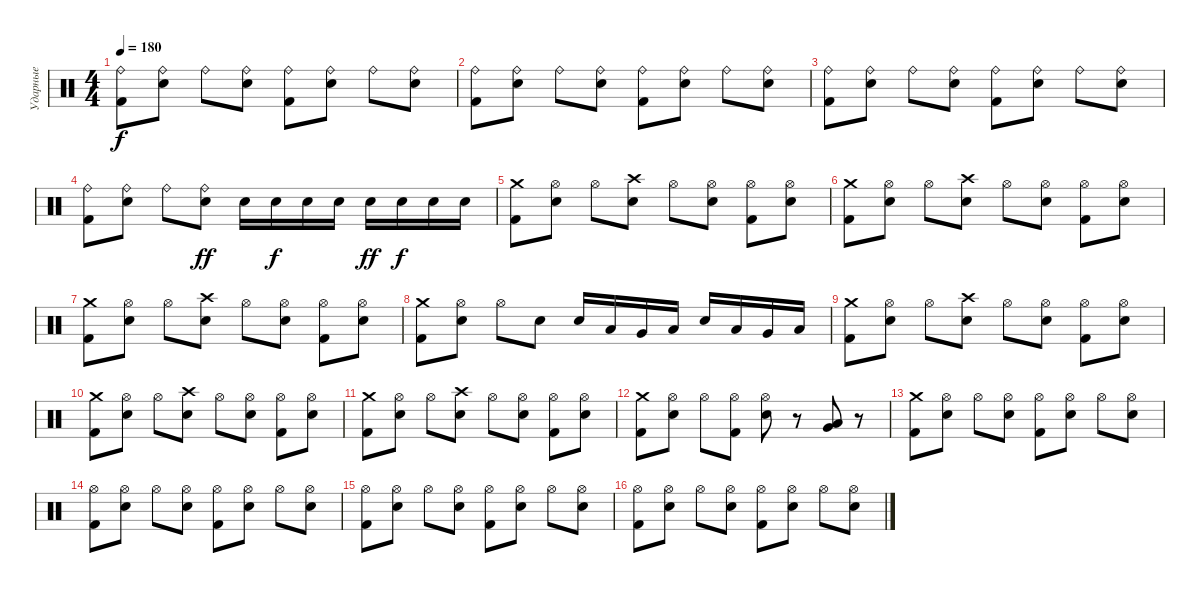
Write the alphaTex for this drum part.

\track ("Ударные" "Ударные") {instrument percussion}
\staff {score}
\articulation defaults
\ts (4 4)
\tempo 180
\clef neutral
\ks c
("Ride (bell)" "Kick (hit) 2").8{dy f} ("Ride (bell)" "Snare (hit) 2").8 "Ride (bell)".8 ("Ride (bell)" "Snare (hit) 2").8 ("Ride (bell)" "Kick (hit) 2").8 ("Ride (bell)" "Snare (hit) 2").8 "Ride (bell)".8 ("Ride (bell)" "Snare (hit) 2").8 |
("Ride (bell)" "Kick (hit) 2").8 ("Ride (bell)" "Snare (hit) 2").8 "Ride (bell)".8 ("Ride (bell)" "Snare (hit) 2").8 ("Ride (bell)" "Kick (hit) 2").8 ("Ride (bell)" "Snare (hit) 2").8 "Ride (bell)".8 ("Ride (bell)" "Snare (hit) 2").8 |
("Ride (bell)" "Kick (hit) 2").8 ("Ride (bell)" "Snare (hit) 2").8 "Ride (bell)".8 ("Ride (bell)" "Snare (hit) 2").8 ("Ride (bell)" "Kick (hit) 2").8 ("Ride (bell)" "Snare (hit) 2").8 "Ride (bell)".8 ("Ride (bell)" "Snare (hit) 2").8 |
("Ride (bell)" "Kick (hit) 2").8 ("Ride (bell)" "Snare (hit) 2").8 "Ride (bell)".8 ("Ride (bell)" "Snare (hit) 2").8{dy ff} "Snare (hit) 2".16 "Snare (hit) 2".16{dy f} "Snare (hit) 2".16 "Snare (hit) 2".16 "Snare (hit) 2".16{dy ff} "Snare (hit) 2".16{dy f} "Snare (hit) 2".16 "Snare (hit) 2".16 |
("Crash medium (hit)" "Kick (hit) 2").8 ("Hi-Hat (open)" "Snare (hit) 2").8 "Hi-Hat (open)".8 ("Crash high (hit)" "Snare (hit) 2").8 "Hi-Hat (open)".8 ("Hi-Hat (open)" "Snare (hit) 2").8 ("Hi-Hat (open)" "Kick (hit) 2").8 ("Hi-Hat (open)" "Snare (hit) 2").8 |
("Crash medium (hit)" "Kick (hit) 2").8 ("Hi-Hat (open)" "Snare (hit) 2").8 "Hi-Hat (open)".8 ("Crash high (hit)" "Snare (hit) 2").8 "Hi-Hat (open)".8 ("Hi-Hat (open)" "Snare (hit) 2").8 ("Hi-Hat (open)" "Kick (hit) 2").8 ("Hi-Hat (open)" "Snare (hit) 2").8 |
("Crash medium (hit)" "Kick (hit) 2").8 ("Hi-Hat (open)" "Snare (hit) 2").8 "Hi-Hat (open)".8 ("Crash high (hit)" "Snare (hit) 2").8 "Hi-Hat (open)".8 ("Hi-Hat (open)" "Snare (hit) 2").8 ("Hi-Hat (open)" "Kick (hit) 2").8 ("Hi-Hat (open)" "Snare (hit) 2").8 |
("Crash medium (hit)" "Kick (hit) 2").8 ("Hi-Hat (open)" "Snare (hit) 2").8 "Hi-Hat (open)".8 "Snare (hit) 2".8 "Snare (hit) 2".16 "Low Tom (hit)".16 "Very Low Tom (hit)".16 "Low Floor Tom (hit)".16 "Snare (hit) 2".16 "Low Tom (hit)".16 "Very Low Tom (hit)".16 "Low Floor Tom (hit)".16 |
("Crash medium (hit)" "Kick (hit) 2").8 ("Hi-Hat (open)" "Snare (hit) 2").8 "Hi-Hat (open)".8 ("Crash high (hit)" "Snare (hit) 2").8 "Hi-Hat (open)".8 ("Hi-Hat (open)" "Snare (hit) 2").8 ("Hi-Hat (open)" "Kick (hit) 2").8 ("Hi-Hat (open)" "Snare (hit) 2").8 |
("Crash medium (hit)" "Kick (hit) 2").8 ("Hi-Hat (open)" "Snare (hit) 2").8 "Hi-Hat (open)".8 ("Crash high (hit)" "Snare (hit) 2").8 "Hi-Hat (open)".8 ("Hi-Hat (open)" "Snare (hit) 2").8 ("Hi-Hat (open)" "Kick (hit) 2").8 ("Hi-Hat (open)" "Snare (hit) 2").8 |
("Crash medium (hit)" "Kick (hit) 2").8 ("Hi-Hat (open)" "Snare (hit) 2").8 "Hi-Hat (open)".8 ("Crash high (hit)" "Snare (hit) 2").8 "Hi-Hat (open)".8 ("Hi-Hat (open)" "Snare (hit) 2").8 ("Hi-Hat (open)" "Kick (hit) 2").8 ("Hi-Hat (open)" "Snare (hit) 2").8 |
("Crash medium (hit)" "Kick (hit) 2").8 ("Hi-Hat (open)" "Snare (hit) 2").8 "Hi-Hat (open)".8 ("Hi-Hat (open)" "Kick (hit) 2").8 ("Hi-Hat (open)" "Snare (hit) 2").8 r.8 ("Very Low Tom (hit)" "Low Floor Tom (hit)").8 r.8 |
("Crash medium (hit)" "Kick (hit) 2").8 ("Hi-Hat (open)" "Snare (hit) 2").8 "Hi-Hat (open)".8 ("Hi-Hat (open)" "Snare (hit) 2").8 ("Hi-Hat (open)" "Kick (hit) 2").8 ("Hi-Hat (open)" "Snare (hit) 2").8 "Hi-Hat (open)".8 ("Hi-Hat (open)" "Snare (hit) 2").8 |
("Hi-Hat (open)" "Kick (hit) 2").8 ("Hi-Hat (open)" "Snare (hit) 2").8 "Hi-Hat (open)".8 ("Hi-Hat (open)" "Snare (hit) 2").8 ("Hi-Hat (open)" "Kick (hit) 2").8 ("Hi-Hat (open)" "Snare (hit) 2").8 "Hi-Hat (open)".8 ("Hi-Hat (open)" "Snare (hit) 2").8 |
("Hi-Hat (open)" "Kick (hit) 2").8 ("Hi-Hat (open)" "Snare (hit) 2").8 "Hi-Hat (open)".8 ("Hi-Hat (open)" "Snare (hit) 2").8 ("Hi-Hat (open)" "Kick (hit) 2").8 ("Hi-Hat (open)" "Snare (hit) 2").8 "Hi-Hat (open)".8 ("Hi-Hat (open)" "Snare (hit) 2").8 |
("Hi-Hat (open)" "Kick (hit) 2").8 ("Hi-Hat (open)" "Snare (hit) 2").8 "Hi-Hat (open)".8 ("Hi-Hat (open)" "Snare (hit) 2").8 ("Hi-Hat (open)" "Kick (hit) 2").8 ("Hi-Hat (open)" "Snare (hit) 2").8 "Hi-Hat (open)".8 ("Hi-Hat (open)" "Snare (hit) 2").8
